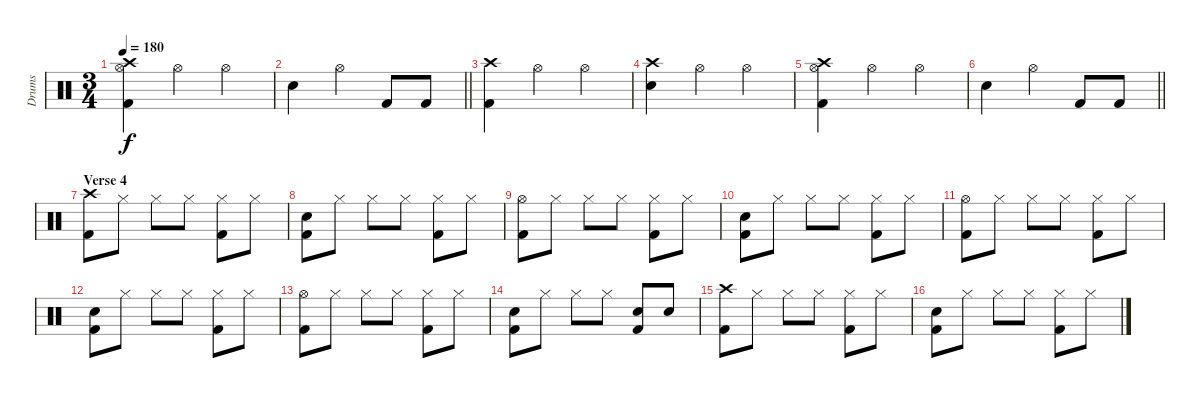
\track ("Drums" "Drums") {instrument percussion}
\staff {score}
\articulation defaults
\ts (3 4)
\tempo 180
\clef neutral
\ks c
("Hi-Hat (open)" "Kick (hit) 2" "Crash high (hit)").4{dy f} "Hi-Hat (open)".4 "Hi-Hat (open)".4 |
\barLineRight lightlight "Snare (hit) 2".4 "Hi-Hat (open)".4 "Kick (hit) 2".8 "Kick (hit) 2".8
|
("Crash high (hit)" "Kick (hit) 2").4 "Hi-Hat (open)".4 "Hi-Hat (open)".4 |
("Snare (hit) 2" "Crash high (hit)").4 "Hi-Hat (open)".4 "Hi-Hat (open)".4 |
("Hi-Hat (open)" "Kick (hit) 2" "Crash high (hit)").4 "Hi-Hat (open)".4 "Hi-Hat (open)".4 |
\barLineRight lightlight "Snare (hit) 2".4 "Hi-Hat (open)".4 "Kick (hit) 2".8 "Kick (hit) 2".8
|
\section ("" "Verse 4")
("Crash high (hit)" "Kick (hit) 2").8 "Hi-Hat (closed)".8 "Hi-Hat (closed)".8 "Hi-Hat (closed)".8 ("Hi-Hat (closed)" "Kick (hit) 2").8 "Hi-Hat (closed)".8 |
("Snare (hit) 2" "Kick (hit) 2").8 "Hi-Hat (closed)".8 "Hi-Hat (closed)".8 "Hi-Hat (closed)".8 ("Hi-Hat (closed)" "Kick (hit) 2").8 "Hi-Hat (closed)".8 |
("Hi-Hat (open)" "Kick (hit) 2").8 "Hi-Hat (closed)".8 "Hi-Hat (closed)".8 "Hi-Hat (closed)".8 ("Hi-Hat (closed)" "Kick (hit) 2").8 "Hi-Hat (closed)".8 |
("Snare (hit) 2" "Kick (hit) 2").8 "Hi-Hat (closed)".8 "Hi-Hat (closed)".8 "Hi-Hat (closed)".8 ("Hi-Hat (closed)" "Kick (hit) 2").8 "Hi-Hat (closed)".8 |
("Hi-Hat (open)" "Kick (hit) 2").8 "Hi-Hat (closed)".8 "Hi-Hat (closed)".8 "Hi-Hat (closed)".8 ("Hi-Hat (closed)" "Kick (hit) 2").8 "Hi-Hat (closed)".8 |
("Snare (hit) 2" "Kick (hit) 2").8 "Hi-Hat (closed)".8 "Hi-Hat (closed)".8 "Hi-Hat (closed)".8 ("Hi-Hat (closed)" "Kick (hit) 2").8 "Hi-Hat (closed)".8 |
("Hi-Hat (open)" "Kick (hit) 2").8 "Hi-Hat (closed)".8 "Hi-Hat (closed)".8 "Hi-Hat (closed)".8 ("Hi-Hat (closed)" "Kick (hit) 2").8 "Hi-Hat (closed)".8 |
("Snare (hit) 2" "Kick (hit) 2").8 "Hi-Hat (closed)".8 "Hi-Hat (closed)".8 "Hi-Hat (closed)".8 ("Snare (hit) 2" "Kick (hit) 2").8 "Snare (hit) 2".8 |
("Crash high (hit)" "Kick (hit) 2").8 "Hi-Hat (closed)".8 "Hi-Hat (closed)".8 "Hi-Hat (closed)".8 ("Hi-Hat (closed)" "Kick (hit) 2").8 "Hi-Hat (closed)".8 |
("Snare (hit) 2" "Kick (hit) 2").8 "Hi-Hat (closed)".8 "Hi-Hat (closed)".8 "Hi-Hat (closed)".8 ("Hi-Hat (closed)" "Kick (hit) 2").8 "Hi-Hat (closed)".8
